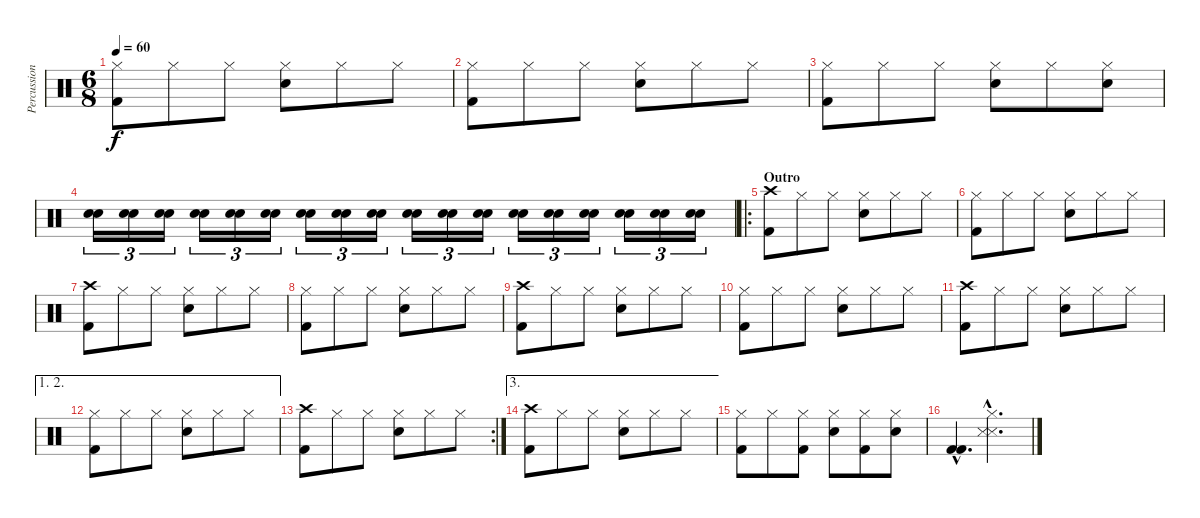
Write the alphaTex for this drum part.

\track ("Percussion" "Percussion") {instrument percussion}
\staff {score}
\articulation defaults
\ts (6 8)
\tempo 60
\clef neutral
\ks c
("Hi-Hat (closed)" "Kick (hit) 2").8{dy f} "Hi-Hat (closed)".8 "Hi-Hat (closed)".8 ("Hi-Hat (closed)" "Electric Snare (hit)").8 "Hi-Hat (closed)".8 "Hi-Hat (closed)".8 |
("Hi-Hat (closed)" "Kick (hit) 2").8 "Hi-Hat (closed)".8 "Hi-Hat (closed)".8 ("Hi-Hat (closed)" "Electric Snare (hit)").8 "Hi-Hat (closed)".8 "Hi-Hat (closed)".8 |
("Hi-Hat (closed)" "Kick (hit) 2").8 "Hi-Hat (closed)".8 "Hi-Hat (closed)".8 ("Hi-Hat (closed)" "Electric Snare (hit)").8 "Hi-Hat (closed)".8 ("Hi-Hat (closed)" "Electric Snare (hit)").8{volume 4} |
("Electric Snare (hit)" "Snare (hit) 2").16{tu (3 2) volume 13} ("Electric Snare (hit)" "Snare (hit) 2").16{tu (3 2)} ("Electric Snare (hit)" "Snare (hit) 2").16{tu (3 2)} ("Electric Snare (hit)" "Snare (hit) 2").16{tu (3 2)} ("Electric Snare (hit)" "Snare (hit) 2").16{tu (3 2)} ("Electric Snare (hit)" "Snare (hit) 2").16{tu (3 2)} ("Electric Snare (hit)" "Snare (hit) 2").16{tu (3 2)} ("Electric Snare (hit)" "Snare (hit) 2").16{tu (3 2)} ("Electric Snare (hit)" "Snare (hit) 2").16{tu (3 2)} ("Electric Snare (hit)" "Snare (hit) 2").16{tu (3 2)} ("Electric Snare (hit)" "Snare (hit) 2").16{tu (3 2)} ("Electric Snare (hit)" "Snare (hit) 2").16{tu (3 2)} ("Electric Snare (hit)" "Snare (hit) 2").16{tu (3 2)} ("Electric Snare (hit)" "Snare (hit) 2").16{tu (3 2)} ("Electric Snare (hit)" "Snare (hit) 2").16{tu (3 2)} ("Electric Snare (hit)" "Snare (hit) 2").16{tu (3 2)} ("Electric Snare (hit)" "Snare (hit) 2").16{tu (3 2)} ("Electric Snare (hit)" "Snare (hit) 2").16{tu (3 2)} |
\ro
\section ("" "Outro")
("Crash high (hit)" "Kick (hit) 2").8 "Hi-Hat (closed)".8 "Hi-Hat (closed)".8 ("Hi-Hat (closed)" "Electric Snare (hit)").8 "Hi-Hat (closed)".8 "Hi-Hat (closed)".8 |
("Hi-Hat (closed)" "Kick (hit) 2").8 "Hi-Hat (closed)".8 "Hi-Hat (closed)".8 ("Hi-Hat (closed)" "Electric Snare (hit)").8 "Hi-Hat (closed)".8 "Hi-Hat (closed)".8 |
("Crash high (hit)" "Kick (hit) 2").8 "Hi-Hat (closed)".8 "Hi-Hat (closed)".8 ("Hi-Hat (closed)" "Electric Snare (hit)").8 "Hi-Hat (closed)".8 "Hi-Hat (closed)".8 |
("Hi-Hat (closed)" "Kick (hit) 2").8 "Hi-Hat (closed)".8 "Hi-Hat (closed)".8 ("Hi-Hat (closed)" "Electric Snare (hit)").8 "Hi-Hat (closed)".8 "Hi-Hat (closed)".8 |
("Crash high (hit)" "Kick (hit) 2").8 "Hi-Hat (closed)".8 "Hi-Hat (closed)".8 ("Hi-Hat (closed)" "Electric Snare (hit)").8 "Hi-Hat (closed)".8 "Hi-Hat (closed)".8 |
("Hi-Hat (closed)" "Kick (hit) 2").8 "Hi-Hat (closed)".8 "Hi-Hat (closed)".8 ("Hi-Hat (closed)" "Electric Snare (hit)").8 "Hi-Hat (closed)".8 "Hi-Hat (closed)".8 |
("Crash high (hit)" "Kick (hit) 2").8 "Hi-Hat (closed)".8 "Hi-Hat (closed)".8 ("Hi-Hat (closed)" "Electric Snare (hit)").8 "Hi-Hat (closed)".8 "Hi-Hat (closed)".8 |
\ae (1 2)
("Hi-Hat (closed)" "Kick (hit) 2").8 "Hi-Hat (closed)".8 "Hi-Hat (closed)".8 ("Hi-Hat (closed)" "Electric Snare (hit)").8 "Hi-Hat (closed)".8 "Hi-Hat (closed)".8 |
\rc 2
("Crash high (hit)" "Kick (hit) 2").8 "Hi-Hat (closed)".8 "Hi-Hat (closed)".8 ("Hi-Hat (closed)" "Electric Snare (hit)").8 "Hi-Hat (closed)".8 "Hi-Hat (closed)".8 |
\ae 3
("Crash high (hit)" "Kick (hit) 2").8 "Hi-Hat (closed)".8 "Hi-Hat (closed)".8 ("Hi-Hat (closed)" "Electric Snare (hit)").8 "Hi-Hat (closed)".8 "Hi-Hat (closed)".8 |
("Hi-Hat (closed)" "Kick (hit) 2").8 "Hi-Hat (closed)".8 ("Hi-Hat (closed)" "Kick (hit) 2").8 ("Hi-Hat (closed)" "Electric Snare (hit)").8 ("Hi-Hat (closed)" "Kick (hit) 2").8 ("Hi-Hat (closed)" "Electric Snare (hit)").8 |
("Kick (hit) 2"{hac} "Kick (hit) 2"{hac}).4{d} ("Hi-Hat (closed)"{hac} "Snare (side stick) 3"{hac} "Snare (side stick) 3"{hac}).4{d}
